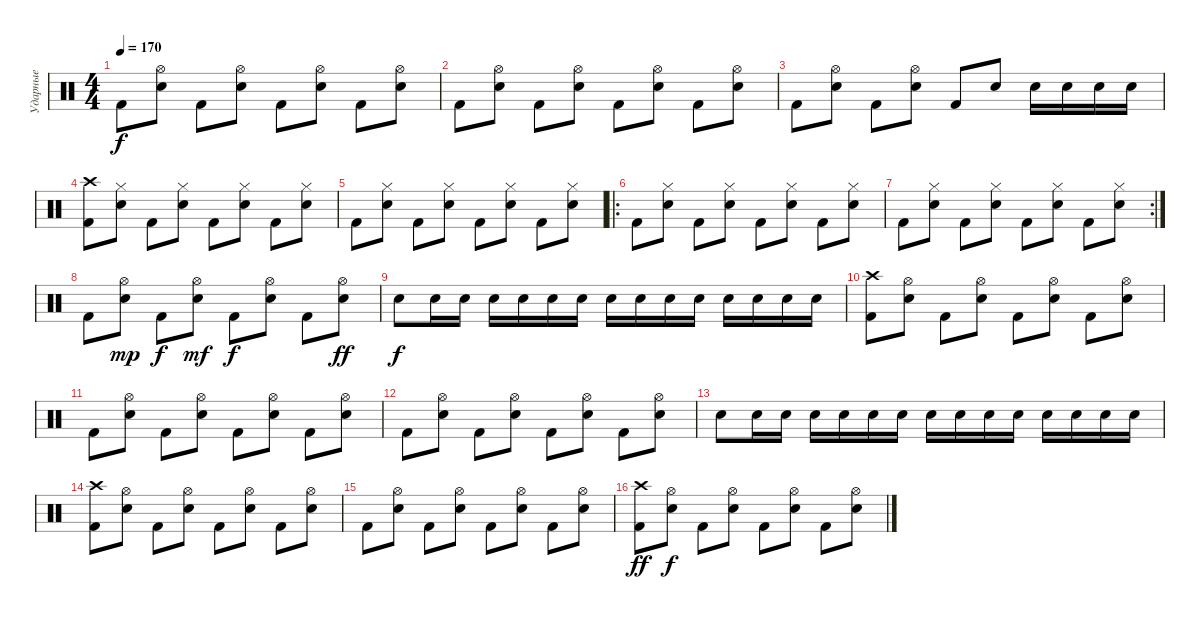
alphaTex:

\track ("Ударные" "Ударные") {instrument percussion}
\staff {score}
\articulation defaults
\ts (4 4)
\tempo 170
\clef neutral
\ks c "Kick (hit) 2".8{dy f}
("Hi-Hat (open)" "Electric Snare (hit)").8 "Kick (hit) 2".8 ("Hi-Hat (open)" "Electric Snare (hit)").8 "Kick (hit) 2".8 ("Hi-Hat (open)" "Electric Snare (hit)").8 "Kick (hit) 2".8 ("Hi-Hat (open)" "Electric Snare (hit)").8 |
"Kick (hit) 2".8 ("Hi-Hat (open)" "Electric Snare (hit)").8 "Kick (hit) 2".8 ("Hi-Hat (open)" "Electric Snare (hit)").8 "Kick (hit) 2".8 ("Hi-Hat (open)" "Electric Snare (hit)").8 "Kick (hit) 2".8 ("Hi-Hat (open)" "Electric Snare (hit)").8 |
"Kick (hit) 2".8 ("Hi-Hat (open)" "Electric Snare (hit)").8 "Kick (hit) 2".8 ("Hi-Hat (open)" "Electric Snare (hit)").8 "Kick (hit) 2".8 "Electric Snare (hit)".8 "Electric Snare (hit)".16 "Electric Snare (hit)".16 "Electric Snare (hit)".16 "Electric Snare (hit)".16 |
("Kick (hit) 2" "Crash high (hit)").8 ("Hi-Hat (closed)" "Electric Snare (hit)").8 "Kick (hit) 2".8 ("Hi-Hat (closed)" "Electric Snare (hit)").8 "Kick (hit) 2".8 ("Hi-Hat (closed)" "Electric Snare (hit)").8 "Kick (hit) 2".8 ("Hi-Hat (closed)" "Electric Snare (hit)").8 |
"Kick (hit) 2".8 ("Hi-Hat (closed)" "Electric Snare (hit)").8 "Kick (hit) 2".8 ("Hi-Hat (closed)" "Electric Snare (hit)").8 "Kick (hit) 2".8 ("Hi-Hat (closed)" "Electric Snare (hit)").8 "Kick (hit) 2".8 ("Hi-Hat (closed)" "Electric Snare (hit)").8 |
\ro "Kick (hit) 2".8
("Hi-Hat (closed)" "Electric Snare (hit)").8 "Kick (hit) 2".8 ("Hi-Hat (closed)" "Electric Snare (hit)").8 "Kick (hit) 2".8 ("Hi-Hat (closed)" "Electric Snare (hit)").8 "Kick (hit) 2".8 ("Hi-Hat (closed)" "Electric Snare (hit)").8 |
\rc 2 "Kick (hit) 2".8
("Hi-Hat (closed)" "Electric Snare (hit)").8 "Kick (hit) 2".8 ("Hi-Hat (closed)" "Electric Snare (hit)").8 "Kick (hit) 2".8 ("Hi-Hat (closed)" "Electric Snare (hit)").8 "Kick (hit) 2".8 ("Hi-Hat (closed)" "Electric Snare (hit)").8 |
"Kick (hit) 2".8 ("Hi-Hat (open)" "Electric Snare (hit)").8{dy mp} "Kick (hit) 2".8{dy f} ("Hi-Hat (open)" "Electric Snare (hit)").8{dy mf} "Kick (hit) 2".8{dy f} ("Hi-Hat (open)" "Electric Snare (hit)").8 "Kick (hit) 2".8 ("Hi-Hat (open)" "Electric Snare (hit)").8{dy ff} |
"Electric Snare (hit)".8{dy f} "Electric Snare (hit)".16 "Electric Snare (hit)".16 "Electric Snare (hit)".16 "Electric Snare (hit)".16 "Electric Snare (hit)".16 "Electric Snare (hit)".16 "Snare (hit) 2".16 "Snare (hit) 2".16 "Snare (hit) 2".16 "Snare (hit) 2".16 "Snare (hit) 2".16 "Snare (hit) 2".16 "Snare (hit) 2".16 "Snare (hit) 2".16 |
("Kick (hit) 2" "Crash high (hit)").8 ("Hi-Hat (open)" "Electric Snare (hit)").8 "Kick (hit) 2".8 ("Hi-Hat (open)" "Electric Snare (hit)").8 "Kick (hit) 2".8 ("Hi-Hat (open)" "Electric Snare (hit)").8 "Kick (hit) 2".8 ("Hi-Hat (open)" "Electric Snare (hit)").8 |
"Kick (hit) 2".8 ("Hi-Hat (open)" "Electric Snare (hit)").8 "Kick (hit) 2".8 ("Hi-Hat (open)" "Electric Snare (hit)").8 "Kick (hit) 2".8 ("Hi-Hat (open)" "Electric Snare (hit)").8 "Kick (hit) 2".8 ("Hi-Hat (open)" "Electric Snare (hit)").8 |
"Kick (hit) 2".8 ("Hi-Hat (open)" "Electric Snare (hit)").8 "Kick (hit) 2".8 ("Hi-Hat (open)" "Electric Snare (hit)").8 "Kick (hit) 2".8 ("Hi-Hat (open)" "Electric Snare (hit)").8 "Kick (hit) 2".8 ("Hi-Hat (open)" "Electric Snare (hit)").8 |
"Electric Snare (hit)".8 "Electric Snare (hit)".16 "Electric Snare (hit)".16 "Electric Snare (hit)".16 "Electric Snare (hit)".16 "Electric Snare (hit)".16 "Electric Snare (hit)".16 "Snare (hit) 2".16 "Snare (hit) 2".16 "Snare (hit) 2".16 "Snare (hit) 2".16 "Snare (hit) 2".16 "Snare (hit) 2".16 "Snare (hit) 2".16 "Snare (hit) 2".16 |
("Kick (hit) 2" "Crash high (hit)").8 ("Hi-Hat (open)" "Electric Snare (hit)").8 "Kick (hit) 2".8 ("Hi-Hat (open)" "Electric Snare (hit)").8 "Kick (hit) 2".8 ("Hi-Hat (open)" "Electric Snare (hit)").8 "Kick (hit) 2".8 ("Hi-Hat (open)" "Electric Snare (hit)").8 |
"Kick (hit) 2".8 ("Hi-Hat (open)" "Electric Snare (hit)").8 "Kick (hit) 2".8 ("Hi-Hat (open)" "Electric Snare (hit)").8 "Kick (hit) 2".8 ("Hi-Hat (open)" "Electric Snare (hit)").8 "Kick (hit) 2".8 ("Hi-Hat (open)" "Electric Snare (hit)").8 |
("Kick (hit) 2" "Crash high (hit)").8{dy ff} ("Hi-Hat (open)" "Electric Snare (hit)").8{dy f} "Kick (hit) 2".8 ("Hi-Hat (open)" "Electric Snare (hit)").8 "Kick (hit) 2".8 ("Hi-Hat (open)" "Electric Snare (hit)").8 "Kick (hit) 2".8 ("Hi-Hat (open)" "Electric Snare (hit)").8
